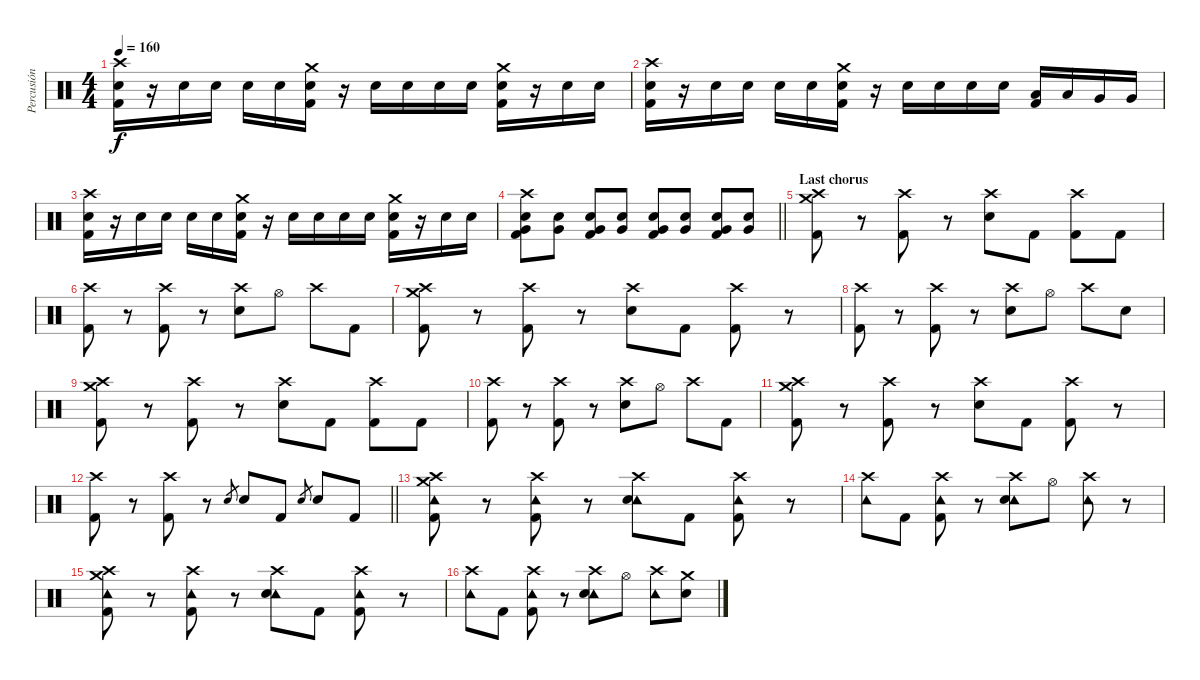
\track ("Percusión" "Percusión") {instrument percussion}
\staff {score}
\articulation defaults
\ts (4 4)
\tempo 160
\clef neutral
\ks c
("Crash high (hit)" "Electric Snare (hit)" "Kick (hit) 2").16{dy f} r.16 "Electric Snare (hit)".16 "Electric Snare (hit)".16 "Electric Snare (hit)".16 "Electric Snare (hit)".16 ("Crash medium (hit)" "Electric Snare (hit)" "Kick (hit) 2").16 r.16 "Electric Snare (hit)".16 "Electric Snare (hit)".16 "Electric Snare (hit)".16 "Electric Snare (hit)".16 ("Crash medium (hit)" "Electric Snare (hit)" "Kick (hit) 2").16 r.16 "Electric Snare (hit)".16 "Electric Snare (hit)".16 |
("Crash high (hit)" "Electric Snare (hit)" "Kick (hit) 2").16 r.16 "Electric Snare (hit)".16 "Electric Snare (hit)".16 "Electric Snare (hit)".16 "Electric Snare (hit)".16 ("Crash medium (hit)" "Electric Snare (hit)" "Kick (hit) 2").16 r.16 "Electric Snare (hit)".16 "Electric Snare (hit)".16 "Electric Snare (hit)".16 "Electric Snare (hit)".16 ("Low Tom (hit)" "Kick (hit) 2").16 "Low Tom (hit)".16 "Very Low Tom (hit)".16 "Very Low Tom (hit)".16 |
("Crash high (hit)" "Electric Snare (hit)" "Kick (hit) 2").16 r.16 "Electric Snare (hit)".16 "Electric Snare (hit)".16 "Electric Snare (hit)".16 "Electric Snare (hit)".16 ("Crash medium (hit)" "Electric Snare (hit)" "Kick (hit) 2").16 r.16 "Electric Snare (hit)".16 "Electric Snare (hit)".16 "Electric Snare (hit)".16 "Electric Snare (hit)".16 ("Crash medium (hit)" "Electric Snare (hit)" "Kick (hit) 2").16 r.16 "Electric Snare (hit)".16 "Electric Snare (hit)".16 |
\barLineRight lightlight
("Crash high (hit)" "Very Low Tom (hit)" "Electric Snare (hit)" "Kick (hit) 2").8 ("Very Low Tom (hit)" "Electric Snare (hit)").8 ("Very Low Tom (hit)" "Electric Snare (hit)" "Kick (hit) 2").8 ("Very Low Tom (hit)" "Electric Snare (hit)").8 ("Very Low Tom (hit)" "Electric Snare (hit)" "Kick (hit) 2").8 ("Very Low Tom (hit)" "Electric Snare (hit)").8 ("Very Low Tom (hit)" "Electric Snare (hit)" "Kick (hit) 2").8 ("Very Low Tom (hit)" "Electric Snare (hit)").8 |
\section ("" "Last chorus")
("Crash medium (hit)" "Crash high (hit)" "Kick (hit) 2").8 r.8 ("Crash high (hit)" "Kick (hit) 2").8 r.8 ("Crash high (hit)" "Electric Snare (hit)").8 "Kick (hit) 2".8 ("Crash high (hit)" "Kick (hit) 2").8 "Kick (hit) 2".8 |
("Crash high (hit)" "Kick (hit) 2").8 r.8 ("Crash high (hit)" "Kick (hit) 2").8 r.8 ("Crash high (hit)" "Electric Snare (hit)").8 "Hi-Hat (open)".8 "Crash high (hit)".8 "Kick (hit) 2".8 |
("Crash medium (hit)" "Crash high (hit)" "Kick (hit) 2").8 r.8 ("Crash high (hit)" "Kick (hit) 2").8 r.8 ("Crash high (hit)" "Electric Snare (hit)").8 "Kick (hit) 2".8 ("Crash high (hit)" "Kick (hit) 2").8 r.8 |
("Crash high (hit)" "Kick (hit) 2").8 r.8 ("Crash high (hit)" "Kick (hit) 2").8 r.8 ("Crash high (hit)" "Electric Snare (hit)").8 "Hi-Hat (open)".8 "Crash high (hit)".8 "Electric Snare (hit)".8 |
("Crash medium (hit)" "Crash high (hit)" "Kick (hit) 2").8 r.8 ("Crash high (hit)" "Kick (hit) 2").8 r.8 ("Crash high (hit)" "Electric Snare (hit)").8 "Kick (hit) 2".8 ("Crash high (hit)" "Kick (hit) 2").8 "Kick (hit) 2".8 |
("Crash high (hit)" "Kick (hit) 2").8 r.8 ("Crash high (hit)" "Kick (hit) 2").8 r.8 ("Crash high (hit)" "Electric Snare (hit)").8 "Hi-Hat (open)".8 "Crash high (hit)".8 "Kick (hit) 2".8 |
("Crash medium (hit)" "Crash high (hit)" "Kick (hit) 2").8 r.8 ("Crash high (hit)" "Kick (hit) 2").8 r.8 ("Crash high (hit)" "Electric Snare (hit)").8 "Kick (hit) 2".8 ("Crash high (hit)" "Kick (hit) 2").8 r.8 |
\barLineRight lightlight
("Crash high (hit)" "Kick (hit) 2").8 r.8 ("Crash high (hit)" "Kick (hit) 2").8 r.8 "Electric Snare (hit)".8{gr} "Electric Snare (hit)".8 "Kick (hit) 2".8 "Electric Snare (hit)".8{gr} "Electric Snare (hit)".8 "Kick (hit) 2".8 |
("Tambourine (hit)" "Crash medium (hit)" "Crash high (hit)" "Kick (hit) 2").8 r.8 ("Tambourine (hit)" "Crash high (hit)" "Kick (hit) 2").8 r.8 ("Tambourine (hit)" "Crash high (hit)" "Electric Snare (hit)").8 "Kick (hit) 2".8 ("Tambourine (hit)" "Crash high (hit)" "Kick (hit) 2").8 r.8 |
("Tambourine (hit)" "Crash high (hit)").8 "Kick (hit) 2".8 ("Tambourine (hit)" "Crash high (hit)" "Kick (hit) 2").8 r.8 ("Tambourine (hit)" "Crash high (hit)" "Electric Snare (hit)").8 "Hi-Hat (open)".8 ("Tambourine (hit)" "Crash high (hit)").8 r.8 |
("Tambourine (hit)" "Crash medium (hit)" "Crash high (hit)" "Kick (hit) 2").8 r.8 ("Tambourine (hit)" "Crash high (hit)" "Kick (hit) 2").8 r.8 ("Tambourine (hit)" "Crash high (hit)" "Electric Snare (hit)").8 "Kick (hit) 2".8 ("Tambourine (hit)" "Crash high (hit)" "Kick (hit) 2").8 r.8 |
("Tambourine (hit)" "Crash high (hit)").8 "Kick (hit) 2".8 ("Tambourine (hit)" "Crash high (hit)" "Kick (hit) 2").8 r.8 ("Tambourine (hit)" "Crash high (hit)" "Electric Snare (hit)").8 "Hi-Hat (open)".8 ("Tambourine (hit)" "Crash high (hit)").8 ("Crash medium (hit)" "Electric Snare (hit)").8
